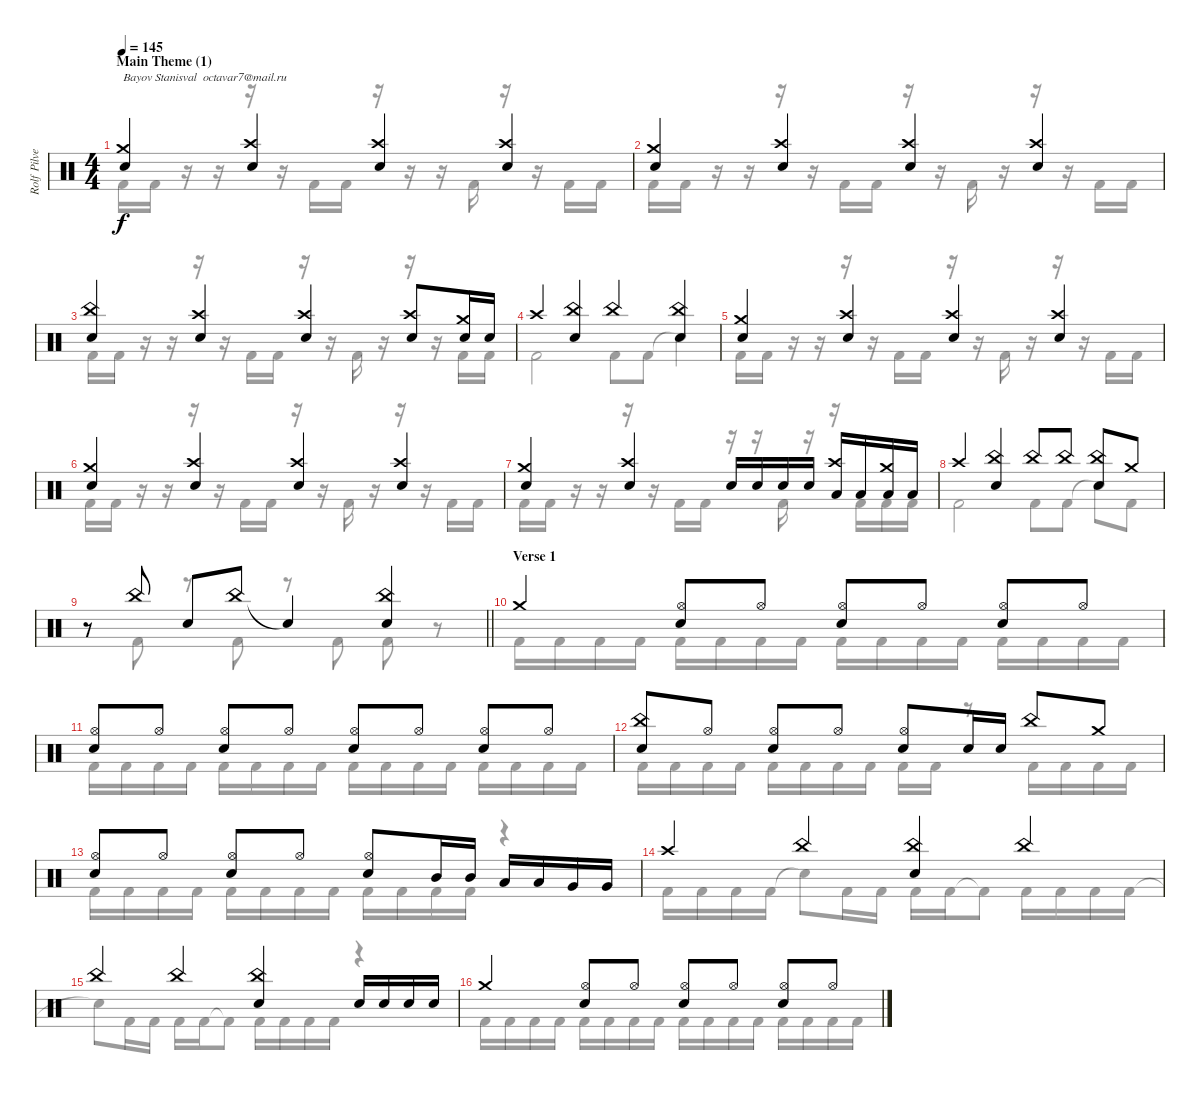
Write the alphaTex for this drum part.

\track ("Rolf Pilve - drums" "Rolf Pilve") {instrument percussion}
\staff {score}
\articulation defaults
\voice
\ts (4 4)
\section ("" "Main Theme (1)")
\tempo 145
\clef neutral
\ks aminor
("Crash medium (hit)" "Electric Snare (hit)").4{txt "Bayov Stanisval  octavar7@mail.ru" dy f} ("Crash high (hit)" "Electric Snare (hit)").4 ("Crash high (hit)" "Electric Snare (hit)").4 ("Crash high (hit)" "Electric Snare (hit)").4 |
("Crash medium (hit)" "Electric Snare (hit)").4 ("Crash high (hit)" "Electric Snare (hit)").4 ("Crash high (hit)" "Electric Snare (hit)").4 ("Crash high (hit)" "Electric Snare (hit)").4 |
("China (hit)" "Electric Snare (hit)").4 ("Crash high (hit)" "Electric Snare (hit)").4 ("Crash high (hit)" "Electric Snare (hit)").4 ("Crash high (hit)" "Electric Snare (hit)").8 ("Crash medium (hit)" "Electric Snare (hit)").16 "Electric Snare (hit)".16 |
"Crash high (hit)".4 ("China (hit)" "Electric Snare (hit)").4 "China (hit)".4 ("China (hit)" "Electric Snare (hit)").4 |
("Crash medium (hit)" "Electric Snare (hit)").4 ("Crash high (hit)" "Electric Snare (hit)").4 ("Crash high (hit)" "Electric Snare (hit)").4 ("Crash high (hit)" "Electric Snare (hit)").4 |
("Crash medium (hit)" "Electric Snare (hit)").4 ("Crash high (hit)" "Electric Snare (hit)").4 ("Crash high (hit)" "Electric Snare (hit)").4 ("Crash high (hit)" "Electric Snare (hit)").4 |
("Crash medium (hit)" "Electric Snare (hit)").4 ("Crash high (hit)" "Electric Snare (hit)").4 "Electric Snare (hit)".16 "Electric Snare (hit)".16 "Electric Snare (hit)".16 "Electric Snare (hit)".16 ("Crash high (hit)" "Low Tom (hit)").16 "Low Tom (hit)".16 ("Crash medium (hit)" "Low Tom (hit)").16 "Low Tom (hit)".16 |
"Crash high (hit)".4 ("China (hit)" "Electric Snare (hit)").4 "China (hit)".8 "China (hit)".8 ("China (hit)" "Electric Snare (hit)").8 "Crash medium (hit)".8 |
\barLineRight lightlight
r.8 "China (hit)".8 "Electric Snare (hit)".8 "China (hit)".8 "Snare (hit)"{t}.4 ("China (hit)" "Electric Snare (hit)").4 |
\section ("" "Verse 1")
"Crash medium (hit)".4 ("Electric Snare (hit)" "Hi-Hat (open)").8 "Hi-Hat (open)".8 ("Electric Snare (hit)" "Hi-Hat (open)").8 "Hi-Hat (open)".8 ("Electric Snare (hit)" "Hi-Hat (open)").8 "Hi-Hat (open)".8 |
("Electric Snare (hit)" "Hi-Hat (open)").8 "Hi-Hat (open)".8 ("Electric Snare (hit)" "Hi-Hat (open)").8 "Hi-Hat (open)".8 ("Electric Snare (hit)" "Hi-Hat (open)").8 "Hi-Hat (open)".8 ("Electric Snare (hit)" "Hi-Hat (open)").8 "Hi-Hat (open)".8 |
("Electric Snare (hit)" "China (hit)").8 "Hi-Hat (open)".8 ("Electric Snare (hit)" "Hi-Hat (open)").8 "Hi-Hat (open)".8 ("Electric Snare (hit)" "Hi-Hat (open)").8 "Electric Snare (hit)".16 "Electric Snare (hit)".16 "China (hit)".8 "Crash medium (hit)".8 |
("Electric Snare (hit)" "Hi-Hat (open)").8 "Hi-Hat (open)".8 ("Electric Snare (hit)" "Hi-Hat (open)").8 "Hi-Hat (open)".8 ("Electric Snare (hit)" "Hi-Hat (open)").8 "Mid Tom (hit)".16 "Mid Tom (hit)".16 "Low Tom (hit)".16 "Low Tom (hit)".16 "Very Low Tom (hit)".16 "Very Low Tom (hit)".16 |
"Crash high (hit)".4 "China (hit)".4 ("China (hit)" "Electric Snare (hit)").4 "China (hit)".4 |
"China (hit)".4 "China (hit)".4 ("China (hit)" "Electric Snare (hit)").4 "Electric Snare (hit)".16 "Electric Snare (hit)".16 "Electric Snare (hit)".16 "Electric Snare (hit)".16 |
"Crash medium (hit)".4 ("Electric Snare (hit)" "Hi-Hat (open)").8 "Hi-Hat (open)".8 ("Electric Snare (hit)" "Hi-Hat (open)").8 "Hi-Hat (open)".8 ("Electric Snare (hit)" "Hi-Hat (open)").8 "Hi-Hat (open)".8
\voice
\clef neutral
\ottava regular
\simile none
\ks aminor "Kick (hit) 2".16{dy f} "Kick (hit) 2".16
r.16 r.16 r.16 r.16 "Kick (hit) 2".16 "Kick (hit) 2".16 r.16 r.16 r.16 "Kick (hit) 2".16 r.16 r.16 "Kick (hit) 2".16 "Kick (hit) 2".16 |
"Kick (hit) 2".16 "Kick (hit) 2".16 r.16 r.16 r.16 r.16 "Kick (hit) 2".16 "Kick (hit) 2".16 r.16 r.16 "Kick (hit) 2".16 r.16 r.16 r.16 "Kick (hit) 2".16 "Kick (hit) 2".16 |
"Kick (hit) 2".16 "Kick (hit) 2".16 r.16 r.16 r.16 r.16 "Kick (hit) 2".16 "Kick (hit) 2".16 r.16 r.16 "Kick (hit) 2".16 r.16 r.16 r.16 "Kick (hit) 2".16 "Kick (hit) 2".16 |
"Kick (hit) 2".2 "Kick (hit) 2".8 "Kick (hit) 2".8 "Snare (hit)"{t}.4 |
"Kick (hit) 2".16 "Kick (hit) 2".16 r.16 r.16 r.16 r.16 "Kick (hit) 2".16 "Kick (hit) 2".16 r.16 r.16 "Kick (hit) 2".16 r.16 r.16 r.16 "Kick (hit) 2".16 "Kick (hit) 2".16 |
"Kick (hit) 2".16 "Kick (hit) 2".16 r.16 r.16 r.16 r.16 "Kick (hit) 2".16 "Kick (hit) 2".16 r.16 r.16 "Kick (hit) 2".16 r.16 r.16 r.16 "Kick (hit) 2".16 "Kick (hit) 2".16 |
"Kick (hit) 2".16 "Kick (hit) 2".16 r.16 r.16 r.16 r.16 "Kick (hit) 2".16 "Kick (hit) 2".16 r.16 r.16 "Kick (hit) 2".16 r.16 r.16 "Kick (hit) 2".16 "Kick (hit) 2".16 "Kick (hit) 2".16 |
"Kick (hit) 2".2 "Kick (hit) 2".8 "Kick (hit) 2".8 "Snare (hit)"{t}.8 "Kick (hit) 2".8 |
\barLineRight lightlight
r.8 "Kick (hit) 2".8 r.8 "Kick (hit) 2".8 r.8 "Kick (hit) 2".8 "Kick (hit) 2".8 r.8 |
"Kick (hit) 2".16 "Kick (hit) 2".16 "Kick (hit) 2".16 "Kick (hit) 2".16 "Kick (hit) 2".16 "Kick (hit) 2".16 "Kick (hit) 2".16 "Kick (hit) 2".16 "Kick (hit) 2".16 "Kick (hit) 2".16 "Kick (hit) 2".16 "Kick (hit) 2".16 "Kick (hit) 2".16 "Kick (hit) 2".16 "Kick (hit) 2".16 "Kick (hit) 2".16 |
"Kick (hit) 2".16 "Kick (hit) 2".16 "Kick (hit) 2".16 "Kick (hit) 2".16 "Kick (hit) 2".16 "Kick (hit) 2".16 "Kick (hit) 2".16 "Kick (hit) 2".16 "Kick (hit) 2".16 "Kick (hit) 2".16 "Kick (hit) 2".16 "Kick (hit) 2".16 "Kick (hit) 2".16 "Kick (hit) 2".16 "Kick (hit) 2".16 "Kick (hit) 2".16 |
"Kick (hit) 2".16 "Kick (hit) 2".16 "Kick (hit) 2".16 "Kick (hit) 2".16 "Kick (hit) 2".16 "Kick (hit) 2".16 "Kick (hit) 2".16 "Kick (hit) 2".16 "Kick (hit) 2".16 "Kick (hit) 2".16 r.8 "Kick (hit) 2".16 "Kick (hit) 2".16 "Kick (hit) 2".16 "Kick (hit) 2".16 |
"Kick (hit) 2".16 "Kick (hit) 2".16 "Kick (hit) 2".16 "Kick (hit) 2".16 "Kick (hit) 2".16 "Kick (hit) 2".16 "Kick (hit) 2".16 "Kick (hit) 2".16 "Kick (hit) 2".16 "Kick (hit) 2".16 "Kick (hit) 2".16 "Kick (hit) 2".16 r.4 |
"Kick (hit) 2".16 "Kick (hit) 2".16 "Kick (hit) 2".16 "Kick (hit) 2".16 "Snare (hit)"{t}.8 "Kick (hit) 2".16 "Kick (hit) 2".16 "Kick (hit) 2".16 "Kick (hit) 2".16 "Kick (hit) 2"{t}.8 "Kick (hit) 2".16 "Kick (hit) 2".16 "Kick (hit) 2".16 "Kick (hit) 2".16 |
"Snare (hit)"{t}.8 "Kick (hit) 2".16 "Kick (hit) 2".16 "Kick (hit) 2".16 "Kick (hit) 2".16 "Kick (hit) 2"{t}.8 "Kick (hit) 2".16 "Kick (hit) 2".16 "Kick (hit) 2".16 "Kick (hit) 2".16 r.4 |
"Kick (hit) 2".16 "Kick (hit) 2".16 "Kick (hit) 2".16 "Kick (hit) 2".16 "Kick (hit) 2".16 "Kick (hit) 2".16 "Kick (hit) 2".16 "Kick (hit) 2".16 "Kick (hit) 2".16 "Kick (hit) 2".16 "Kick (hit) 2".16 "Kick (hit) 2".16 "Kick (hit) 2".16 "Kick (hit) 2".16 "Kick (hit) 2".16 "Kick (hit) 2".16
